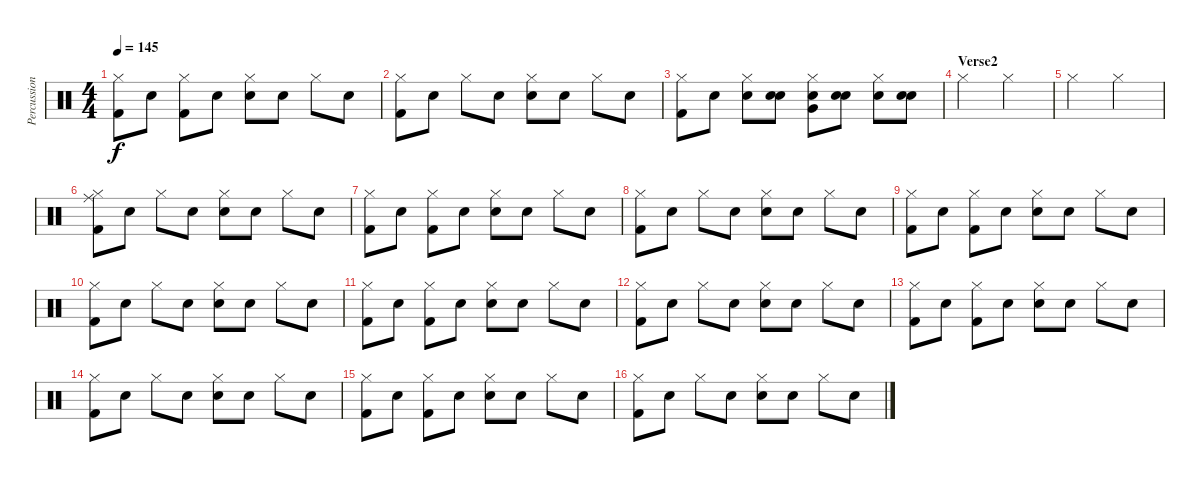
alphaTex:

\track ("Percussion" "Percussion") {instrument percussion}
\staff {score}
\articulation defaults
\ts (4 4)
\tempo 145
\clef neutral
\ks c
("Hi-Hat (closed)" "Kick (hit) 2").8{dy f} "Snare (hit)"{x}.8 ("Hi-Hat (closed)" "Kick (hit) 2").8 "Snare (hit)"{x}.8 ("Hi-Hat (closed)" "Electric Snare (hit)").8 "Snare (hit)"{x}.8 "Hi-Hat (closed)".8 "Snare (hit)"{x}.8 |
("Hi-Hat (closed)" "Kick (hit) 2").8 "Snare (hit)"{x}.8 "Hi-Hat (closed)".8 "Snare (hit)"{x}.8 ("Hi-Hat (closed)" "Electric Snare (hit)").8 "Snare (hit)"{x}.8 "Hi-Hat (closed)".8 "Snare (hit)"{x}.8 |
("Hi-Hat (closed)" "Kick (hit) 2").8 "Snare (hit)"{x}.8 ("Hi-Hat (closed)" "Electric Snare (hit)"{x}).8 ("Snare (hit)"{x} "Electric Snare (hit)").8 ("Hi-Hat (closed)" "Very Low Tom (hit)" "Electric Snare (hit)").8 ("Snare (hit)"{x} "Electric Snare (hit)"{x}).8 ("Hi-Hat (closed)" "Electric Snare (hit)").8 ("Snare (hit)"{x} "Electric Snare (hit)").8 |
\section ("" "Verse2")
"Hi-Hat (closed)".2 "Hi-Hat (closed)".2 |
"Hi-Hat (closed)".2 "Hi-Hat (closed)".2 |
("Hi-Hat (closed)" "Ride (middle)" "Kick (hit) 2").8 "Snare (hit)"{x}.8 "Hi-Hat (closed)".8 "Snare (hit)"{x}.8 ("Hi-Hat (closed)" "Electric Snare (hit)").8 "Snare (hit)"{x}.8 "Hi-Hat (closed)".8 "Snare (hit)"{x}.8 |
("Hi-Hat (closed)" "Kick (hit) 2").8 "Snare (hit)"{x}.8 ("Hi-Hat (closed)" "Kick (hit) 2").8 "Snare (hit)"{x}.8 ("Hi-Hat (closed)" "Electric Snare (hit)").8 "Snare (hit)"{x}.8 "Hi-Hat (closed)".8 "Snare (hit)"{x}.8 |
("Hi-Hat (closed)" "Kick (hit) 2").8 "Snare (hit)"{x}.8 "Hi-Hat (closed)".8 "Snare (hit)"{x}.8 ("Hi-Hat (closed)" "Electric Snare (hit)").8 "Snare (hit)"{x}.8 "Hi-Hat (closed)".8 "Snare (hit)"{x}.8 |
("Hi-Hat (closed)" "Kick (hit) 2").8 "Snare (hit)"{x}.8 ("Hi-Hat (closed)" "Kick (hit) 2").8 "Snare (hit)"{x}.8 ("Hi-Hat (closed)" "Electric Snare (hit)").8 "Snare (hit)"{x}.8 "Hi-Hat (closed)".8 "Snare (hit)"{x}.8 |
("Hi-Hat (closed)" "Kick (hit) 2").8 "Snare (hit)"{x}.8 "Hi-Hat (closed)".8 "Snare (hit)"{x}.8 ("Hi-Hat (closed)" "Electric Snare (hit)").8 "Snare (hit)"{x}.8 "Hi-Hat (closed)".8 "Snare (hit)"{x}.8 |
("Hi-Hat (closed)" "Kick (hit) 2").8 "Snare (hit)"{x}.8 ("Hi-Hat (closed)" "Kick (hit) 2").8 "Snare (hit)"{x}.8 ("Hi-Hat (closed)" "Electric Snare (hit)").8 "Snare (hit)"{x}.8 "Hi-Hat (closed)".8 "Snare (hit)"{x}.8 |
("Hi-Hat (closed)" "Kick (hit) 2").8 "Snare (hit)"{x}.8 "Hi-Hat (closed)".8 "Snare (hit)"{x}.8 ("Hi-Hat (closed)" "Electric Snare (hit)").8 "Snare (hit)"{x}.8 "Hi-Hat (closed)".8 "Snare (hit)"{x}.8 |
("Hi-Hat (closed)" "Kick (hit) 2").8 "Snare (hit)"{x}.8 ("Hi-Hat (closed)" "Kick (hit) 2").8 "Snare (hit)"{x}.8 ("Hi-Hat (closed)" "Electric Snare (hit)").8 "Snare (hit)"{x}.8 "Hi-Hat (closed)".8 "Snare (hit)"{x}.8 |
("Hi-Hat (closed)" "Kick (hit) 2").8 "Snare (hit)"{x}.8 "Hi-Hat (closed)".8 "Snare (hit)"{x}.8 ("Hi-Hat (closed)" "Electric Snare (hit)").8 "Snare (hit)"{x}.8 "Hi-Hat (closed)".8 "Snare (hit)"{x}.8 |
("Hi-Hat (closed)" "Kick (hit) 2").8 "Snare (hit)"{x}.8 ("Hi-Hat (closed)" "Kick (hit) 2").8 "Snare (hit)"{x}.8 ("Hi-Hat (closed)" "Electric Snare (hit)").8 "Snare (hit)"{x}.8 "Hi-Hat (closed)".8 "Snare (hit)"{x}.8 |
("Hi-Hat (closed)" "Kick (hit) 2").8 "Snare (hit)"{x}.8 "Hi-Hat (closed)".8 "Snare (hit)"{x}.8 ("Hi-Hat (closed)" "Electric Snare (hit)").8 "Snare (hit)"{x}.8 "Hi-Hat (closed)".8 "Snare (hit)"{x}.8
